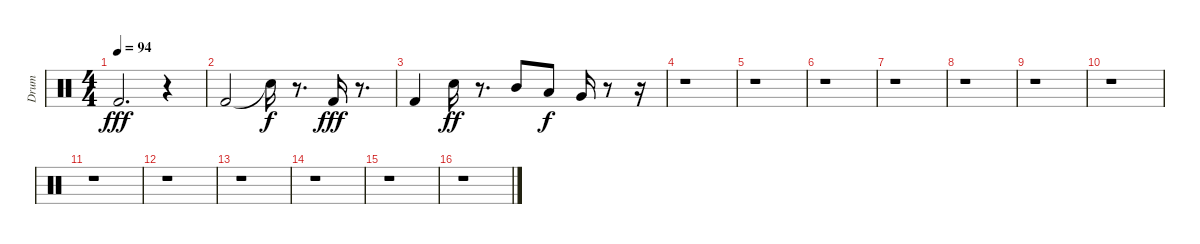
\track ("Drum                    " "Drum      ") {instrument percussion}
\staff {score}
\articulation defaults
\ts (4 4)
\tempo 94
\clef neutral
\ks c "Kick (hit) 2".2{d dy fff}
r.4 |
"Kick (hit) 2".2 "Snare (hit)"{t}.16{dy f} r.8{d} "Kick (hit) 2".16{dy fff} r.8{d} |
"Kick (hit) 2".4 "Snare (hit) 2".16{dy ff} r.8{d} "Mid Tom (hit)".8 "Low Tom (hit)".8{dy f} "Very Low Tom (hit)".16 r.8 r.16 |
r.1 |
r.1 |
r.1 |
r.1 |
r.1 |
r.1 |
r.1 |
r.1 |
r.1 |
r.1 |
r.1 |
r.1 |
r.1
